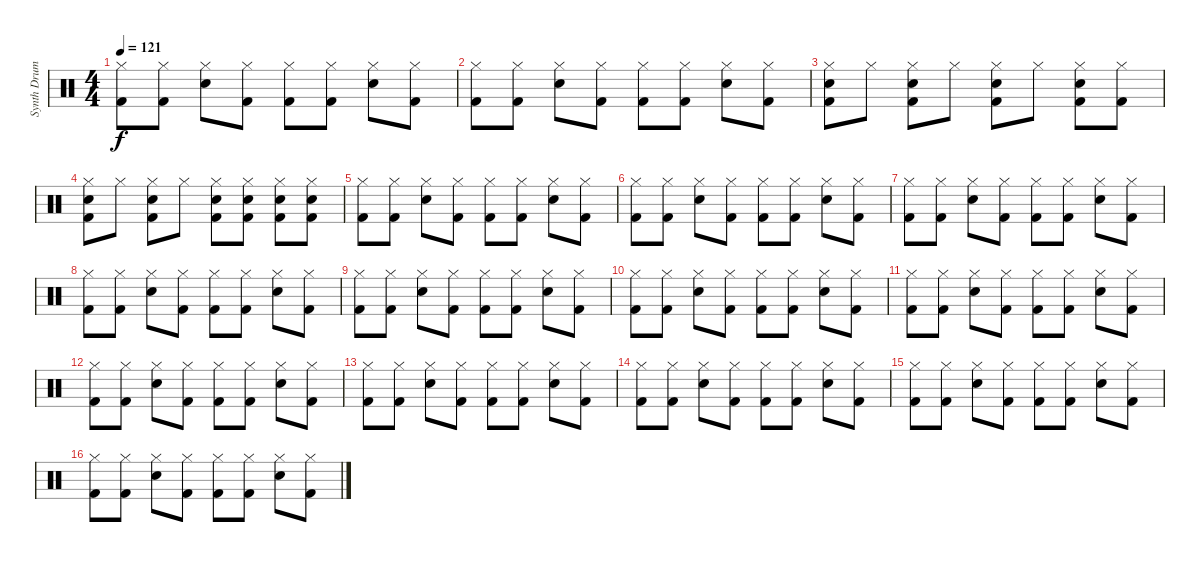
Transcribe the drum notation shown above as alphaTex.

\track ("Synth Drums" "Synth Drum") {instrument percussion}
\staff {score}
\articulation defaults
\ts (4 4)
\tempo 121
\clef neutral
\ks c
("Hi-Hat (closed)" "Kick (hit) 2").8{dy f} ("Hi-Hat (closed)" "Kick (hit) 2").8 ("Hi-Hat (closed)" "Electric Snare (hit)").8 ("Hi-Hat (closed)" "Kick (hit) 2").8 ("Hi-Hat (closed)" "Kick (hit) 2").8 ("Hi-Hat (closed)" "Kick (hit) 2").8 ("Hi-Hat (closed)" "Electric Snare (hit)").8 ("Hi-Hat (closed)" "Kick (hit) 2").8 |
("Hi-Hat (closed)" "Kick (hit) 2").8 ("Hi-Hat (closed)" "Kick (hit) 2").8 ("Hi-Hat (closed)" "Electric Snare (hit)").8 ("Hi-Hat (closed)" "Kick (hit) 2").8 ("Hi-Hat (closed)" "Kick (hit) 2").8 ("Hi-Hat (closed)" "Kick (hit) 2").8 ("Hi-Hat (closed)" "Electric Snare (hit)").8 ("Hi-Hat (closed)" "Kick (hit) 2").8 |
("Hi-Hat (closed)" "Electric Snare (hit)" "Kick (hit) 2").8 "Hi-Hat (closed)".8 ("Hi-Hat (closed)" "Electric Snare (hit)" "Kick (hit) 2").8 "Hi-Hat (closed)".8 ("Hi-Hat (closed)" "Electric Snare (hit)" "Kick (hit) 2").8 "Hi-Hat (closed)".8 ("Hi-Hat (closed)" "Electric Snare (hit)" "Kick (hit) 2").8 ("Hi-Hat (closed)" "Kick (hit) 2").8 |
("Hi-Hat (closed)" "Electric Snare (hit)" "Kick (hit) 2").8 "Hi-Hat (closed)".8 ("Hi-Hat (closed)" "Electric Snare (hit)" "Kick (hit) 2").8 "Hi-Hat (closed)".8 ("Hi-Hat (closed)" "Electric Snare (hit)" "Kick (hit) 2").8 ("Hi-Hat (closed)" "Electric Snare (hit)" "Kick (hit) 2").8 ("Hi-Hat (closed)" "Electric Snare (hit)" "Kick (hit) 2").8 ("Hi-Hat (closed)" "Electric Snare (hit)" "Kick (hit) 2").8 |
("Hi-Hat (closed)" "Kick (hit) 2").8 ("Hi-Hat (closed)" "Kick (hit) 2").8 ("Hi-Hat (closed)" "Electric Snare (hit)").8 ("Hi-Hat (closed)" "Kick (hit) 2").8 ("Hi-Hat (closed)" "Kick (hit) 2").8 ("Hi-Hat (closed)" "Kick (hit) 2").8 ("Hi-Hat (closed)" "Electric Snare (hit)").8 ("Hi-Hat (closed)" "Kick (hit) 2").8 |
("Hi-Hat (closed)" "Kick (hit) 2").8 ("Hi-Hat (closed)" "Kick (hit) 2").8 ("Hi-Hat (closed)" "Electric Snare (hit)").8 ("Hi-Hat (closed)" "Kick (hit) 2").8 ("Hi-Hat (closed)" "Kick (hit) 2").8 ("Hi-Hat (closed)" "Kick (hit) 2").8 ("Hi-Hat (closed)" "Electric Snare (hit)").8 ("Hi-Hat (closed)" "Kick (hit) 2").8 |
("Hi-Hat (closed)" "Kick (hit) 2").8 ("Hi-Hat (closed)" "Kick (hit) 2").8 ("Hi-Hat (closed)" "Electric Snare (hit)").8 ("Hi-Hat (closed)" "Kick (hit) 2").8 ("Hi-Hat (closed)" "Kick (hit) 2").8 ("Hi-Hat (closed)" "Kick (hit) 2").8 ("Hi-Hat (closed)" "Electric Snare (hit)").8 ("Hi-Hat (closed)" "Kick (hit) 2").8 |
("Hi-Hat (closed)" "Kick (hit) 2").8 ("Hi-Hat (closed)" "Kick (hit) 2").8 ("Hi-Hat (closed)" "Electric Snare (hit)").8 ("Hi-Hat (closed)" "Kick (hit) 2").8 ("Hi-Hat (closed)" "Kick (hit) 2").8 ("Hi-Hat (closed)" "Kick (hit) 2").8 ("Hi-Hat (closed)" "Electric Snare (hit)").8 ("Hi-Hat (closed)" "Kick (hit) 2").8 |
("Hi-Hat (closed)" "Kick (hit) 2").8 ("Hi-Hat (closed)" "Kick (hit) 2").8 ("Hi-Hat (closed)" "Electric Snare (hit)").8 ("Hi-Hat (closed)" "Kick (hit) 2").8 ("Hi-Hat (closed)" "Kick (hit) 2").8 ("Hi-Hat (closed)" "Kick (hit) 2").8 ("Hi-Hat (closed)" "Electric Snare (hit)").8 ("Hi-Hat (closed)" "Kick (hit) 2").8 |
("Hi-Hat (closed)" "Kick (hit) 2").8 ("Hi-Hat (closed)" "Kick (hit) 2").8 ("Hi-Hat (closed)" "Electric Snare (hit)").8 ("Hi-Hat (closed)" "Kick (hit) 2").8 ("Hi-Hat (closed)" "Kick (hit) 2").8 ("Hi-Hat (closed)" "Kick (hit) 2").8 ("Hi-Hat (closed)" "Electric Snare (hit)").8 ("Hi-Hat (closed)" "Kick (hit) 2").8 |
("Hi-Hat (closed)" "Kick (hit) 2").8 ("Hi-Hat (closed)" "Kick (hit) 2").8 ("Hi-Hat (closed)" "Electric Snare (hit)").8 ("Hi-Hat (closed)" "Kick (hit) 2").8 ("Hi-Hat (closed)" "Kick (hit) 2").8 ("Hi-Hat (closed)" "Kick (hit) 2").8 ("Hi-Hat (closed)" "Electric Snare (hit)").8 ("Hi-Hat (closed)" "Kick (hit) 2").8 |
("Hi-Hat (closed)" "Kick (hit) 2").8 ("Hi-Hat (closed)" "Kick (hit) 2").8 ("Hi-Hat (closed)" "Electric Snare (hit)").8 ("Hi-Hat (closed)" "Kick (hit) 2").8 ("Hi-Hat (closed)" "Kick (hit) 2").8 ("Hi-Hat (closed)" "Kick (hit) 2").8 ("Hi-Hat (closed)" "Electric Snare (hit)").8 ("Hi-Hat (closed)" "Kick (hit) 2").8 |
("Hi-Hat (closed)" "Kick (hit) 2").8 ("Hi-Hat (closed)" "Kick (hit) 2").8 ("Hi-Hat (closed)" "Electric Snare (hit)").8 ("Hi-Hat (closed)" "Kick (hit) 2").8 ("Hi-Hat (closed)" "Kick (hit) 2").8 ("Hi-Hat (closed)" "Kick (hit) 2").8 ("Hi-Hat (closed)" "Electric Snare (hit)").8 ("Hi-Hat (closed)" "Kick (hit) 2").8 |
("Hi-Hat (closed)" "Kick (hit) 2").8 ("Hi-Hat (closed)" "Kick (hit) 2").8 ("Hi-Hat (closed)" "Electric Snare (hit)").8 ("Hi-Hat (closed)" "Kick (hit) 2").8 ("Hi-Hat (closed)" "Kick (hit) 2").8 ("Hi-Hat (closed)" "Kick (hit) 2").8 ("Hi-Hat (closed)" "Electric Snare (hit)").8 ("Hi-Hat (closed)" "Kick (hit) 2").8 |
("Hi-Hat (closed)" "Kick (hit) 2").8 ("Hi-Hat (closed)" "Kick (hit) 2").8 ("Hi-Hat (closed)" "Electric Snare (hit)").8 ("Hi-Hat (closed)" "Kick (hit) 2").8 ("Hi-Hat (closed)" "Kick (hit) 2").8 ("Hi-Hat (closed)" "Kick (hit) 2").8 ("Hi-Hat (closed)" "Electric Snare (hit)").8 ("Hi-Hat (closed)" "Kick (hit) 2").8 |
("Hi-Hat (closed)" "Kick (hit) 2").8 ("Hi-Hat (closed)" "Kick (hit) 2").8 ("Hi-Hat (closed)" "Electric Snare (hit)").8 ("Hi-Hat (closed)" "Kick (hit) 2").8 ("Hi-Hat (closed)" "Kick (hit) 2").8 ("Hi-Hat (closed)" "Kick (hit) 2").8 ("Hi-Hat (closed)" "Electric Snare (hit)").8 ("Hi-Hat (closed)" "Kick (hit) 2").8
